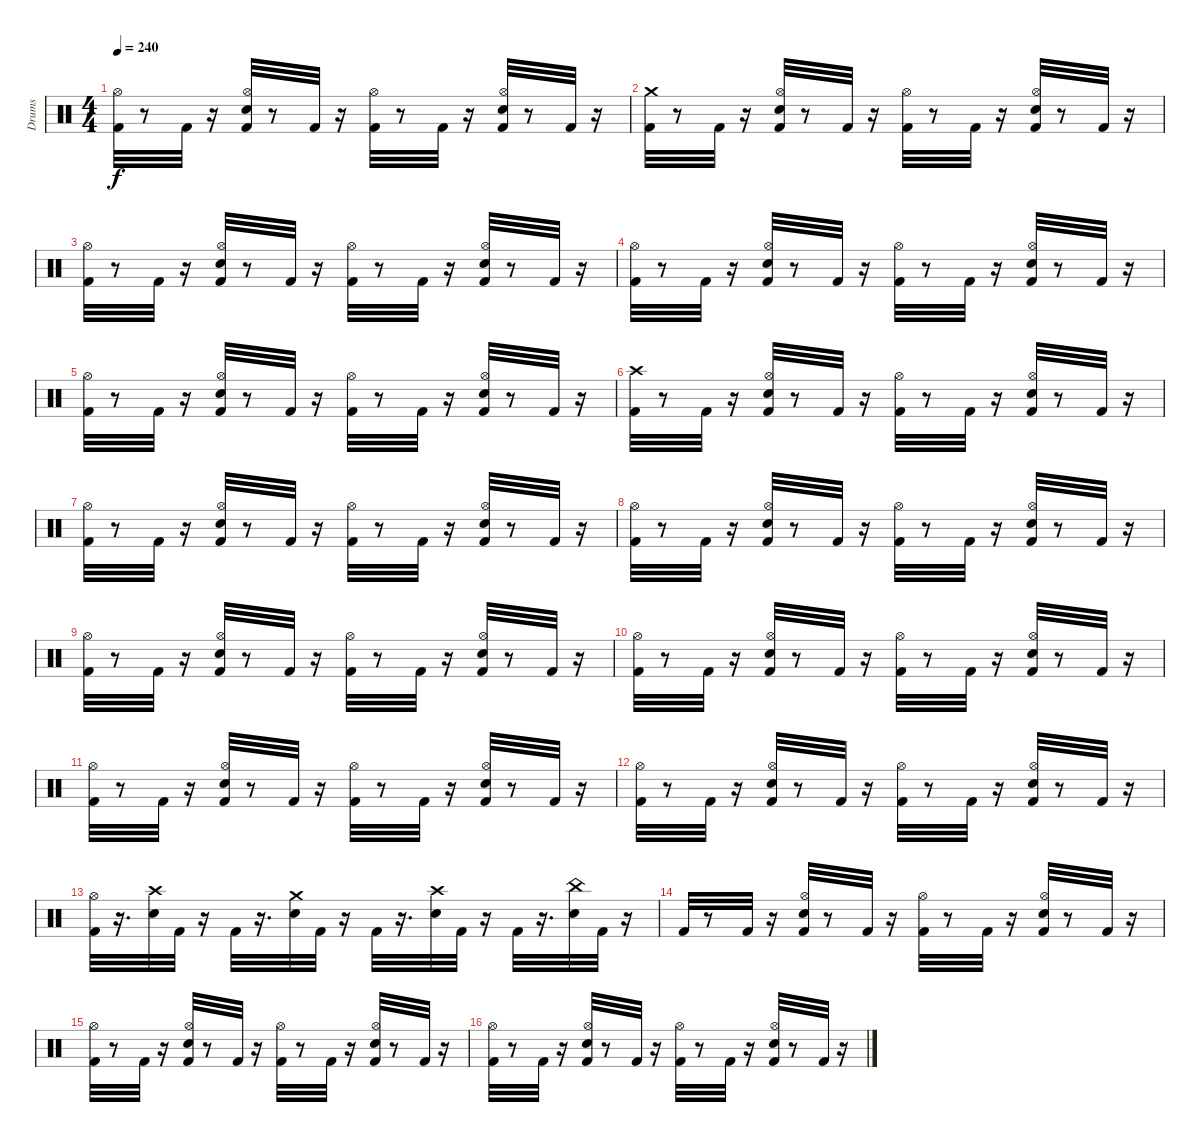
\track ("Drums" "Drums") {instrument percussion}
\staff {score}
\articulation defaults
\ts (4 4)
\tempo 240
\clef neutral
\ks c
("Kick (hit) 2" "Hi-Hat (open)").32{dy f} r.8 "Kick (hit) 2".32 r.16 ("Hi-Hat (open)" "Electric Snare (hit)" "Kick (hit) 2").32 r.8 "Kick (hit) 2".32 r.16 ("Kick (hit) 2" "Hi-Hat (open)").32 r.8 "Kick (hit) 2".32 r.16 ("Electric Snare (hit)" "Kick (hit) 2" "Hi-Hat (open)").32 r.8 "Kick (hit) 2".32 r.16 |
("Kick (hit) 2" "Crash medium (hit)").32 r.8 "Kick (hit) 2".32 r.16 ("Electric Snare (hit)" "Kick (hit) 2" "Hi-Hat (open)").32 r.8 "Kick (hit) 2".32 r.16 ("Kick (hit) 2" "Hi-Hat (open)").32 r.8 "Kick (hit) 2".32 r.16 ("Hi-Hat (open)" "Kick (hit) 2" "Electric Snare (hit)").32 r.8 "Kick (hit) 2".32 r.16 |
("Hi-Hat (open)" "Kick (hit) 2").32 r.8 "Kick (hit) 2".32 r.16 ("Electric Snare (hit)" "Hi-Hat (open)" "Kick (hit) 2").32 r.8 "Kick (hit) 2".32 r.16 ("Kick (hit) 2" "Hi-Hat (open)").32 r.8 "Kick (hit) 2".32 r.16 ("Kick (hit) 2" "Hi-Hat (open)" "Electric Snare (hit)").32 r.8 "Kick (hit) 2".32 r.16 |
("Kick (hit) 2" "Hi-Hat (open)").32 r.8 "Kick (hit) 2".32 r.16 ("Electric Snare (hit)" "Hi-Hat (open)" "Kick (hit) 2").32 r.8 "Kick (hit) 2".32 r.16 ("Kick (hit) 2" "Hi-Hat (open)").32 r.8 "Kick (hit) 2".32 r.16 ("Electric Snare (hit)" "Hi-Hat (open)" "Kick (hit) 2").32 r.8 "Kick (hit) 2".32 r.16 |
("Hi-Hat (open)" "Kick (hit) 2").32 r.8 "Kick (hit) 2".32 r.16 ("Kick (hit) 2" "Hi-Hat (open)" "Electric Snare (hit)").32 r.8 "Kick (hit) 2".32 r.16 ("Hi-Hat (open)" "Kick (hit) 2").32 r.8 "Kick (hit) 2".32 r.16 ("Kick (hit) 2" "Hi-Hat (open)" "Electric Snare (hit)").32 r.8 "Kick (hit) 2".32 r.16 |
("Crash high (hit)" "Kick (hit) 2").32 r.8 "Kick (hit) 2".32 r.16 ("Electric Snare (hit)" "Hi-Hat (open)" "Kick (hit) 2").32 r.8 "Kick (hit) 2".32 r.16 ("Hi-Hat (open)" "Kick (hit) 2").32 r.8 "Kick (hit) 2".32 r.16 ("Kick (hit) 2" "Hi-Hat (open)" "Electric Snare (hit)").32 r.8 "Kick (hit) 2".32 r.16 |
("Kick (hit) 2" "Hi-Hat (open)").32 r.8 "Kick (hit) 2".32 r.16 ("Kick (hit) 2" "Hi-Hat (open)" "Electric Snare (hit)").32 r.8 "Kick (hit) 2".32 r.16 ("Hi-Hat (open)" "Kick (hit) 2").32 r.8 "Kick (hit) 2".32 r.16 ("Electric Snare (hit)" "Kick (hit) 2" "Hi-Hat (open)").32 r.8 "Kick (hit) 2".32 r.16 |
("Hi-Hat (open)" "Kick (hit) 2").32 r.8 "Kick (hit) 2".32 r.16 ("Electric Snare (hit)" "Hi-Hat (open)" "Kick (hit) 2").32 r.8 "Kick (hit) 2".32 r.16 ("Kick (hit) 2" "Hi-Hat (open)").32 r.8 "Kick (hit) 2".32 r.16 ("Electric Snare (hit)" "Hi-Hat (open)" "Kick (hit) 2").32 r.8 "Kick (hit) 2".32 r.16 |
("Hi-Hat (open)" "Kick (hit) 2").32 r.8 "Kick (hit) 2".32 r.16 ("Electric Snare (hit)" "Kick (hit) 2" "Hi-Hat (open)").32 r.8 "Kick (hit) 2".32 r.16 ("Kick (hit) 2" "Hi-Hat (open)").32 r.8 "Kick (hit) 2".32 r.16 ("Electric Snare (hit)" "Kick (hit) 2" "Hi-Hat (open)").32 r.8 "Kick (hit) 2".32 r.16 |
("Kick (hit) 2" "Hi-Hat (open)").32 r.8 "Kick (hit) 2".32 r.16 ("Electric Snare (hit)" "Kick (hit) 2" "Hi-Hat (open)").32 r.8 "Kick (hit) 2".32 r.16 ("Kick (hit) 2" "Hi-Hat (open)").32 r.8 "Kick (hit) 2".32 r.16 ("Electric Snare (hit)" "Hi-Hat (open)" "Kick (hit) 2").32 r.8 "Kick (hit) 2".32 r.16 |
("Hi-Hat (open)" "Kick (hit) 2").32 r.8 "Kick (hit) 2".32 r.16 ("Electric Snare (hit)" "Kick (hit) 2" "Hi-Hat (open)").32 r.8 "Kick (hit) 2".32 r.16 ("Kick (hit) 2" "Hi-Hat (open)").32 r.8 "Kick (hit) 2".32 r.16 ("Hi-Hat (open)" "Kick (hit) 2" "Electric Snare (hit)").32 r.8 "Kick (hit) 2".32 r.16 |
("Hi-Hat (open)" "Kick (hit) 2").32 r.8 "Kick (hit) 2".32 r.16 ("Electric Snare (hit)" "Hi-Hat (open)" "Kick (hit) 2").32 r.8 "Kick (hit) 2".32 r.16 ("Hi-Hat (open)" "Kick (hit) 2").32 r.8 "Kick (hit) 2".32 r.16 ("Kick (hit) 2" "Electric Snare (hit)" "Hi-Hat (open)").32 r.8 "Kick (hit) 2".32 r.16 |
("Hi-Hat (open)" "Kick (hit) 2").32 r.16{d} ("Crash high (hit)" "Electric Snare (hit)").32 "Kick (hit) 2".32 r.16 "Kick (hit) 2".32 r.16{d} ("Electric Snare (hit)" "Crash medium (hit)").32 "Kick (hit) 2".32 r.16 "Kick (hit) 2".32 r.16{d} ("Crash high (hit)" "Electric Snare (hit)").32 "Kick (hit) 2".32 r.16 "Kick (hit) 2".32 r.16{d} ("China (hit)" "Electric Snare (hit)").32 "Kick (hit) 2".32 r.16 |
"Kick (hit) 2".32 r.8 "Kick (hit) 2".32 r.16 ("Hi-Hat (open)" "Electric Snare (hit)" "Kick (hit) 2").32 r.8 "Kick (hit) 2".32 r.16 ("Hi-Hat (open)" "Kick (hit) 2").32 r.8 "Kick (hit) 2".32 r.16 ("Hi-Hat (open)" "Electric Snare (hit)" "Kick (hit) 2").32 r.8 "Kick (hit) 2".32 r.16 |
("Hi-Hat (open)" "Kick (hit) 2").32 r.8 "Kick (hit) 2".32 r.16 ("Kick (hit) 2" "Electric Snare (hit)" "Hi-Hat (open)").32 r.8 "Kick (hit) 2".32 r.16 ("Hi-Hat (open)" "Kick (hit) 2").32 r.8 "Kick (hit) 2".32 r.16 ("Kick (hit) 2" "Electric Snare (hit)" "Hi-Hat (open)").32 r.8 "Kick (hit) 2".32 r.16 |
("Hi-Hat (open)" "Kick (hit) 2").32 r.8 "Kick (hit) 2".32 r.16 ("Hi-Hat (open)" "Electric Snare (hit)" "Kick (hit) 2").32 r.8 "Kick (hit) 2".32 r.16 ("Hi-Hat (open)" "Kick (hit) 2").32 r.8 "Kick (hit) 2".32 r.16 ("Kick (hit) 2" "Hi-Hat (open)" "Electric Snare (hit)").32 r.8 "Kick (hit) 2".32 r.16
